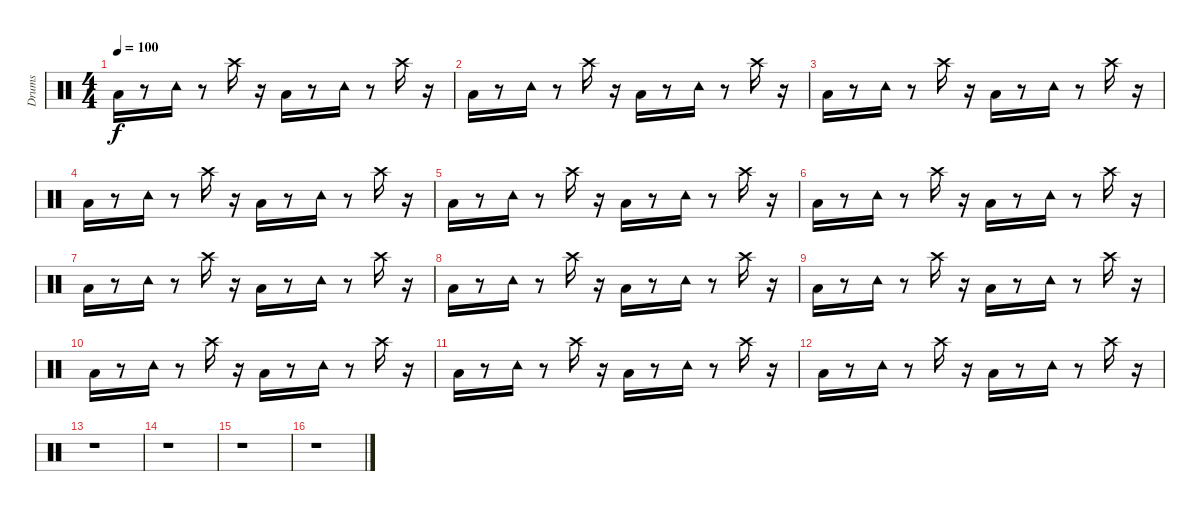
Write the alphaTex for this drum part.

\track ("Drums" "Drums") {instrument percussion}
\staff {score}
\articulation defaults
\ts (4 4)
\tempo 100
\clef neutral
\ks c "Low Floor Tom (hit)".16{dy f}
r.8 "Tambourine (hit)".16 r.8 "Crash high (hit)".16 r.16 "Low Floor Tom (hit)".16 r.8 "Tambourine (hit)".16 r.8 "Crash high (hit)".16 r.16 |
"Low Floor Tom (hit)".16 r.8 "Tambourine (hit)".16 r.8 "Crash high (hit)".16 r.16 "Low Floor Tom (hit)".16 r.8 "Tambourine (hit)".16 r.8 "Crash high (hit)".16 r.16 |
"Low Floor Tom (hit)".16 r.8 "Tambourine (hit)".16 r.8 "Crash high (hit)".16 r.16 "Low Floor Tom (hit)".16 r.8 "Tambourine (hit)".16 r.8 "Crash high (hit)".16 r.16 |
"Low Floor Tom (hit)".16 r.8 "Tambourine (hit)".16 r.8 "Crash high (hit)".16 r.16 "Low Floor Tom (hit)".16 r.8 "Tambourine (hit)".16 r.8 "Crash high (hit)".16 r.16 |
"Low Floor Tom (hit)".16 r.8 "Tambourine (hit)".16 r.8 "Crash high (hit)".16 r.16 "Low Floor Tom (hit)".16 r.8 "Tambourine (hit)".16 r.8 "Crash high (hit)".16 r.16 |
"Low Floor Tom (hit)".16 r.8 "Tambourine (hit)".16 r.8 "Crash high (hit)".16 r.16 "Low Floor Tom (hit)".16 r.8 "Tambourine (hit)".16 r.8 "Crash high (hit)".16 r.16 |
"Low Floor Tom (hit)".16 r.8 "Tambourine (hit)".16 r.8 "Crash high (hit)".16 r.16 "Low Floor Tom (hit)".16 r.8 "Tambourine (hit)".16 r.8 "Crash high (hit)".16 r.16 |
"Low Floor Tom (hit)".16 r.8 "Tambourine (hit)".16 r.8 "Crash high (hit)".16 r.16 "Low Floor Tom (hit)".16 r.8 "Tambourine (hit)".16 r.8 "Crash high (hit)".16 r.16 |
"Low Floor Tom (hit)".16 r.8 "Tambourine (hit)".16 r.8 "Crash high (hit)".16 r.16 "Low Floor Tom (hit)".16 r.8 "Tambourine (hit)".16 r.8 "Crash high (hit)".16 r.16 |
"Low Floor Tom (hit)".16 r.8 "Tambourine (hit)".16 r.8 "Crash high (hit)".16 r.16 "Low Floor Tom (hit)".16 r.8 "Tambourine (hit)".16 r.8 "Crash high (hit)".16 r.16 |
"Low Floor Tom (hit)".16 r.8 "Tambourine (hit)".16 r.8 "Crash high (hit)".16 r.16 "Low Floor Tom (hit)".16 r.8 "Tambourine (hit)".16 r.8 "Crash high (hit)".16 r.16 |
"Low Floor Tom (hit)".16 r.8 "Tambourine (hit)".16 r.8 "Crash high (hit)".16 r.16 "Low Floor Tom (hit)".16 r.8 "Tambourine (hit)".16 r.8 "Crash high (hit)".16 r.16 |
r.1 |
r.1 |
r.1 |
r.1
